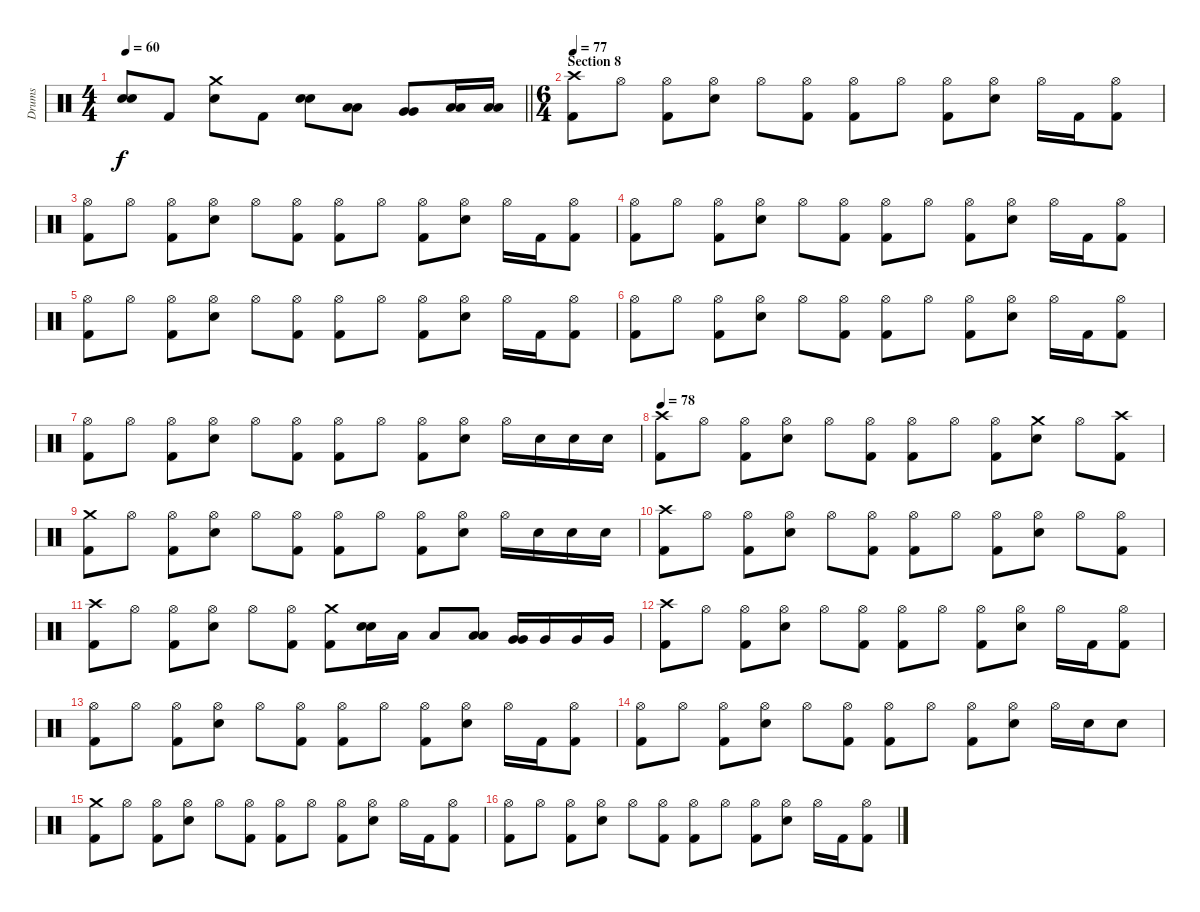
\track ("Drums" "Drums") {instrument percussion}
\staff {score}
\articulation defaults
\ts (4 4)
\tempo 60
\clef neutral
\barLineRight lightlight
\ks c
("Electric Snare (hit)" "Electric Snare (hit)").8{bu 60 dy f} "Kick (hit) 2".8 ("Crash medium (hit)" "Electric Snare (hit)").8 "Kick (hit) 2".8 ("Electric Snare (hit)" "Electric Snare (hit)").8{bu 60} ("Low Tom (hit)" "Low Tom (hit)").8{bu 60} ("Very Low Tom (hit)" "Very Low Tom (hit)").8{bu 60} ("Low Floor Tom (hit)" "Low Floor Tom (hit)").16{bu 60} ("Low Floor Tom (hit)" "Low Floor Tom (hit)").16{bu 60} |
\ts (6 4)
\section ("" "Section 8")
\tempo 77
("Crash high (hit)" "Kick (hit) 2").8 "Hi-Hat (open)".8 ("Hi-Hat (open)" "Kick (hit) 2").8 ("Hi-Hat (open)" "Electric Snare (hit)").8 "Hi-Hat (open)".8 ("Hi-Hat (open)" "Kick (hit) 2").8 ("Hi-Hat (open)" "Kick (hit) 2").8 "Hi-Hat (open)".8 ("Hi-Hat (open)" "Kick (hit) 2").8 ("Hi-Hat (open)" "Electric Snare (hit)").8 "Hi-Hat (open)".16 "Kick (hit) 2".16 ("Hi-Hat (open)" "Kick (hit) 2").8 |
("Hi-Hat (open)" "Kick (hit) 2").8 "Hi-Hat (open)".8 ("Hi-Hat (open)" "Kick (hit) 2").8 ("Hi-Hat (open)" "Electric Snare (hit)").8 "Hi-Hat (open)".8 ("Hi-Hat (open)" "Kick (hit) 2").8 ("Hi-Hat (open)" "Kick (hit) 2").8 "Hi-Hat (open)".8 ("Hi-Hat (open)" "Kick (hit) 2").8 ("Hi-Hat (open)" "Electric Snare (hit)").8 "Hi-Hat (open)".16 "Kick (hit) 2".16 ("Hi-Hat (open)" "Kick (hit) 2").8 |
("Hi-Hat (open)" "Kick (hit) 2").8 "Hi-Hat (open)".8 ("Hi-Hat (open)" "Kick (hit) 2").8 ("Hi-Hat (open)" "Electric Snare (hit)").8 "Hi-Hat (open)".8 ("Hi-Hat (open)" "Kick (hit) 2").8 ("Hi-Hat (open)" "Kick (hit) 2").8 "Hi-Hat (open)".8 ("Hi-Hat (open)" "Kick (hit) 2").8 ("Hi-Hat (open)" "Electric Snare (hit)").8 "Hi-Hat (open)".16 "Kick (hit) 2".16 ("Hi-Hat (open)" "Kick (hit) 2").8 |
("Hi-Hat (open)" "Kick (hit) 2").8 "Hi-Hat (open)".8 ("Hi-Hat (open)" "Kick (hit) 2").8 ("Hi-Hat (open)" "Electric Snare (hit)").8 "Hi-Hat (open)".8 ("Hi-Hat (open)" "Kick (hit) 2").8 ("Hi-Hat (open)" "Kick (hit) 2").8 "Hi-Hat (open)".8 ("Hi-Hat (open)" "Kick (hit) 2").8 ("Hi-Hat (open)" "Electric Snare (hit)").8 "Hi-Hat (open)".16 "Kick (hit) 2".16 ("Hi-Hat (open)" "Kick (hit) 2").8 |
("Hi-Hat (open)" "Kick (hit) 2").8 "Hi-Hat (open)".8 ("Hi-Hat (open)" "Kick (hit) 2").8 ("Hi-Hat (open)" "Electric Snare (hit)").8 "Hi-Hat (open)".8 ("Hi-Hat (open)" "Kick (hit) 2").8 ("Hi-Hat (open)" "Kick (hit) 2").8 "Hi-Hat (open)".8 ("Hi-Hat (open)" "Kick (hit) 2").8 ("Hi-Hat (open)" "Electric Snare (hit)").8 "Hi-Hat (open)".16 "Kick (hit) 2".16 ("Hi-Hat (open)" "Kick (hit) 2").8 |
("Hi-Hat (open)" "Kick (hit) 2").8 "Hi-Hat (open)".8 ("Hi-Hat (open)" "Kick (hit) 2").8 ("Hi-Hat (open)" "Electric Snare (hit)").8 "Hi-Hat (open)".8 ("Hi-Hat (open)" "Kick (hit) 2").8 ("Hi-Hat (open)" "Kick (hit) 2").8 "Hi-Hat (open)".8 ("Hi-Hat (open)" "Kick (hit) 2").8 ("Hi-Hat (open)" "Electric Snare (hit)").8 "Hi-Hat (open)".16 "Electric Snare (hit)".16 "Electric Snare (hit)".16 "Electric Snare (hit)".16 |
\tempo 78
("Crash high (hit)" "Kick (hit) 2").8 "Hi-Hat (open)".8 ("Hi-Hat (open)" "Kick (hit) 2").8 ("Hi-Hat (open)" "Electric Snare (hit)").8 "Hi-Hat (open)".8 ("Hi-Hat (open)" "Kick (hit) 2").8 ("Hi-Hat (open)" "Kick (hit) 2").8 "Hi-Hat (open)".8 ("Hi-Hat (open)" "Kick (hit) 2").8 ("Crash medium (hit)" "Electric Snare (hit)").8 "Hi-Hat (open)".8 ("Crash high (hit)" "Kick (hit) 2").8 |
("Crash medium (hit)" "Kick (hit) 2").8 "Hi-Hat (open)".8 ("Hi-Hat (open)" "Kick (hit) 2").8 ("Hi-Hat (open)" "Electric Snare (hit)").8 "Hi-Hat (open)".8 ("Hi-Hat (open)" "Kick (hit) 2").8 ("Hi-Hat (open)" "Kick (hit) 2").8 "Hi-Hat (open)".8 ("Hi-Hat (open)" "Kick (hit) 2").8 ("Hi-Hat (open)" "Electric Snare (hit)").8 "Hi-Hat (open)".16 "Electric Snare (hit)".16 "Electric Snare (hit)".16 "Electric Snare (hit)".16 |
("Crash high (hit)" "Kick (hit) 2").8 "Hi-Hat (open)".8 ("Hi-Hat (open)" "Kick (hit) 2").8 ("Hi-Hat (open)" "Electric Snare (hit)").8 "Hi-Hat (open)".8 ("Hi-Hat (open)" "Kick (hit) 2").8 ("Hi-Hat (open)" "Kick (hit) 2").8 "Hi-Hat (open)".8 ("Hi-Hat (open)" "Kick (hit) 2").8 ("Hi-Hat (open)" "Electric Snare (hit)").8 "Hi-Hat (open)".8 ("Hi-Hat (open)" "Kick (hit) 2").8 |
("Crash high (hit)" "Kick (hit) 2").8 "Hi-Hat (open)".8 ("Hi-Hat (open)" "Kick (hit) 2").8 ("Hi-Hat (open)" "Electric Snare (hit)").8 "Hi-Hat (open)".8 ("Hi-Hat (open)" "Kick (hit) 2").8 ("Crash medium (hit)" "Kick (hit) 2").8 ("Electric Snare (hit)" "Electric Snare (hit)").16{bu 60} "Low Tom (hit)".16 "Low Tom (hit)".8 ("Low Tom (hit)" "Low Tom (hit)").8{bu 60} ("Very Low Tom (hit)" "Very Low Tom (hit)").16{bu 60} "Very Low Tom (hit)".16 "Very Low Tom (hit)".16 "Very Low Tom (hit)".16 |
("Crash high (hit)" "Kick (hit) 2").8 "Hi-Hat (open)".8 ("Hi-Hat (open)" "Kick (hit) 2").8 ("Hi-Hat (open)" "Electric Snare (hit)").8 "Hi-Hat (open)".8 ("Hi-Hat (open)" "Kick (hit) 2").8 ("Hi-Hat (open)" "Kick (hit) 2").8 "Hi-Hat (open)".8 ("Hi-Hat (open)" "Kick (hit) 2").8 ("Hi-Hat (open)" "Electric Snare (hit)").8 "Hi-Hat (open)".16 "Kick (hit) 2".16 ("Hi-Hat (open)" "Kick (hit) 2").8 |
("Hi-Hat (open)" "Kick (hit) 2").8 "Hi-Hat (open)".8 ("Hi-Hat (open)" "Kick (hit) 2").8 ("Hi-Hat (open)" "Electric Snare (hit)").8 "Hi-Hat (open)".8 ("Hi-Hat (open)" "Kick (hit) 2").8 ("Hi-Hat (open)" "Kick (hit) 2").8 "Hi-Hat (open)".8 ("Hi-Hat (open)" "Kick (hit) 2").8 ("Hi-Hat (open)" "Electric Snare (hit)").8 "Hi-Hat (open)".16 "Kick (hit) 2".16 ("Hi-Hat (open)" "Kick (hit) 2").8 |
("Hi-Hat (open)" "Kick (hit) 2").8 "Hi-Hat (open)".8 ("Hi-Hat (open)" "Kick (hit) 2").8 ("Hi-Hat (open)" "Electric Snare (hit)").8 "Hi-Hat (open)".8 ("Hi-Hat (open)" "Kick (hit) 2").8 ("Hi-Hat (open)" "Kick (hit) 2").8 "Hi-Hat (open)".8 ("Hi-Hat (open)" "Kick (hit) 2").8 ("Hi-Hat (open)" "Electric Snare (hit)").8 "Hi-Hat (open)".16 "Electric Snare (hit)".16 "Electric Snare (hit)".8 |
("Crash medium (hit)" "Kick (hit) 2").8 "Hi-Hat (open)".8 ("Hi-Hat (open)" "Kick (hit) 2").8 ("Hi-Hat (open)" "Electric Snare (hit)").8 "Hi-Hat (open)".8 ("Hi-Hat (open)" "Kick (hit) 2").8 ("Hi-Hat (open)" "Kick (hit) 2").8 "Hi-Hat (open)".8 ("Hi-Hat (open)" "Kick (hit) 2").8 ("Hi-Hat (open)" "Electric Snare (hit)").8 "Hi-Hat (open)".16 "Kick (hit) 2".16 ("Hi-Hat (open)" "Kick (hit) 2").8 |
("Hi-Hat (open)" "Kick (hit) 2").8 "Hi-Hat (open)".8 ("Hi-Hat (open)" "Kick (hit) 2").8 ("Hi-Hat (open)" "Electric Snare (hit)").8 "Hi-Hat (open)".8 ("Hi-Hat (open)" "Kick (hit) 2").8 ("Hi-Hat (open)" "Kick (hit) 2").8 "Hi-Hat (open)".8 ("Hi-Hat (open)" "Kick (hit) 2").8 ("Hi-Hat (open)" "Electric Snare (hit)").8 "Hi-Hat (open)".16 "Kick (hit) 2".16 ("Hi-Hat (open)" "Kick (hit) 2").8
